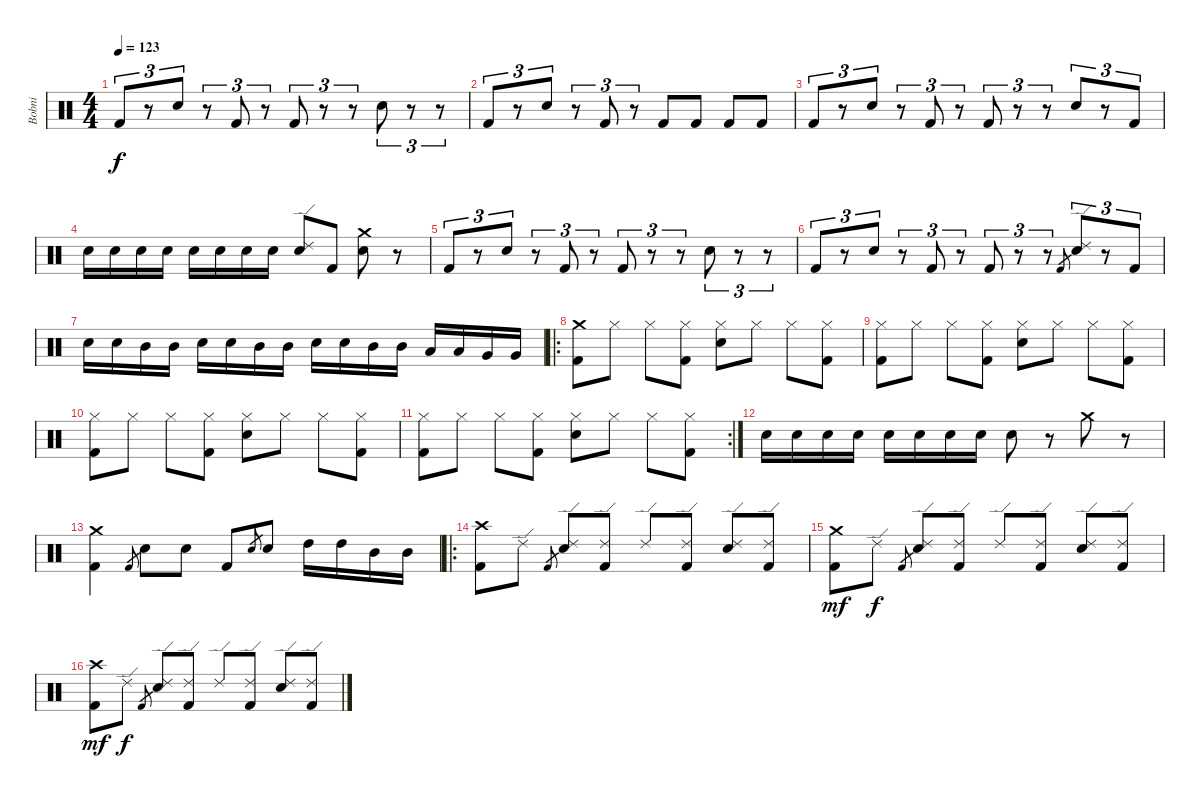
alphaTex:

\track ("Bobni" "Bobni") {instrument percussion}
\staff {score}
\articulation defaults
\ts (4 4)
\tempo 123
\clef neutral
\ks c "Kick (hit) 2".8{tu (3 2) dy f}
r.8{tu (3 2)} "Snare (hit) 2".8{tu (3 2)} r.8{tu (3 2)} "Kick (hit) 2".8{tu (3 2)} r.8{tu (3 2)} "Kick (hit) 2".8{tu (3 2)} r.8{tu (3 2)} r.8{tu (3 2)} "Snare (hit) 2".8{tu (3 2)} r.8{tu (3 2)} r.8{tu (3 2)} |
"Kick (hit) 2".8{tu (3 2)} r.8{tu (3 2)} "Snare (hit) 2".8{tu (3 2)} r.8{tu (3 2)} "Kick (hit) 2".8{tu (3 2)} r.8{tu (3 2)} "Kick (hit) 2".8 "Kick (hit) 2".8 "Kick (hit) 2".8 "Kick (hit) 2".8 |
"Kick (hit) 2".8{tu (3 2)} r.8{tu (3 2)} "Snare (hit) 2".8{tu (3 2)} r.8{tu (3 2)} "Kick (hit) 2".8{tu (3 2)} r.8{tu (3 2)} "Kick (hit) 2".8{tu (3 2)} r.8{tu (3 2)} r.8{tu (3 2)} "Snare (hit) 2".8{tu (3 2)} r.8{tu (3 2)} "Kick (hit) 2".8{tu (3 2)} |
"Snare (hit) 2".16 "Snare (hit) 2".16 "Snare (hit) 2".16 "Snare (hit) 2".16 "Snare (hit) 2".16 "Snare (hit) 2".16 "Snare (hit) 2".16 "Snare (hit) 2".16 ("Ride (edge) 2" "Snare (hit) 2").8 "Kick (hit) 2".8 ("Crash medium (hit)" "Snare (hit) 2").8 r.8 |
"Kick (hit) 2".8{tu (3 2)} r.8{tu (3 2)} "Snare (hit) 2".8{tu (3 2)} r.8{tu (3 2)} "Kick (hit) 2".8{tu (3 2)} r.8{tu (3 2)} "Kick (hit) 2".8{tu (3 2)} r.8{tu (3 2)} r.8{tu (3 2)} "Snare (hit) 2".8{tu (3 2)} r.8{tu (3 2)} r.8{tu (3 2)} |
"Kick (hit) 2".8{tu (3 2)} r.8{tu (3 2)} "Snare (hit) 2".8{tu (3 2)} r.8{tu (3 2)} "Kick (hit) 2".8{tu (3 2)} r.8{tu (3 2)} "Kick (hit) 2".8{tu (3 2)} r.8{tu (3 2)} r.8{tu (3 2)} "Kick (hit) 2".8{gr} ("Ride (edge) 2" "Snare (hit) 2").8{tu (3 2)} r.8{tu (3 2)} "Kick (hit) 2".8{tu (3 2)} |
"Snare (hit) 2".16 "Snare (hit) 2".16 "Mid Tom (hit)".16 "Mid Tom (hit)".16 "Snare (hit) 2".16 "Snare (hit) 2".16 "Mid Tom (hit)".16 "Mid Tom (hit)".16 "Snare (hit) 2".16 "Snare (hit) 2".16 "Mid Tom (hit)".16 "Mid Tom (hit)".16 "Low Tom (hit)".16 "Low Tom (hit)".16 "Very Low Tom (hit)".16 "Very Low Tom (hit)".16 |
\ro
("Crash medium (hit)" "Kick (hit) 2").8 "Hi-Hat (closed)".8 "Hi-Hat (closed)".8 ("Hi-Hat (closed)" "Kick (hit) 2").8 ("Hi-Hat (closed)" "Snare (hit) 2").8 "Hi-Hat (closed)".8 "Hi-Hat (closed)".8 ("Hi-Hat (closed)" "Kick (hit) 2").8 |
("Hi-Hat (closed)" "Kick (hit) 2").8 "Hi-Hat (closed)".8 "Hi-Hat (closed)".8 ("Hi-Hat (closed)" "Kick (hit) 2").8 ("Hi-Hat (closed)" "Snare (hit) 2").8 "Hi-Hat (closed)".8 "Hi-Hat (closed)".8 ("Hi-Hat (closed)" "Kick (hit) 2").8 |
("Hi-Hat (closed)" "Kick (hit) 2").8 "Hi-Hat (closed)".8 "Hi-Hat (closed)".8 ("Hi-Hat (closed)" "Kick (hit) 2").8 ("Hi-Hat (closed)" "Snare (hit) 2").8 "Hi-Hat (closed)".8 "Hi-Hat (closed)".8 ("Hi-Hat (closed)" "Kick (hit) 2").8 |
\rc 2
("Hi-Hat (closed)" "Kick (hit) 2").8 "Hi-Hat (closed)".8 "Hi-Hat (closed)".8 ("Hi-Hat (closed)" "Kick (hit) 2").8 ("Hi-Hat (closed)" "Snare (hit) 2").8 "Hi-Hat (closed)".8 "Hi-Hat (closed)".8 ("Hi-Hat (closed)" "Kick (hit) 2").8 |
"Snare (hit) 2".16 "Snare (hit) 2".16 "Snare (hit) 2".16 "Snare (hit) 2".16 "Snare (hit) 2".16 "Snare (hit) 2".16 "Snare (hit) 2".16 "Snare (hit) 2".16 "Snare (hit) 2".8 r.8 "Crash medium (hit)".8 r.8 |
("Crash medium (hit)" "Kick (hit) 2").4 "Kick (hit) 2".8{gr} "Snare (hit) 2".8 "Snare (hit) 2".8 "Kick (hit) 2".8 "Snare (hit) 2".8{gr} "Snare (hit) 2".8 "High Tom (hit)".16 "High Tom (hit)".16 "Mid Tom (hit)".16 "Mid Tom (hit)".16 |
\ro
("Crash high (hit)" "Kick (hit) 2").8 "Ride (edge) 2".8 "Kick (hit) 2".8{gr} ("Ride (edge) 2" "Snare (hit) 2").8 ("Ride (edge) 2" "Kick (hit) 2").8 "Ride (edge) 2".8 ("Ride (edge) 2" "Kick (hit) 2").8 ("Ride (edge) 2" "Snare (hit) 2").8 ("Ride (edge) 2" "Kick (hit) 2").8 |
("Crash medium (hit)" "Kick (hit) 2").8{dy mf} "Ride (edge) 2".8{dy f} "Kick (hit) 2".8{gr} ("Ride (edge) 2" "Snare (hit) 2").8 ("Ride (edge) 2" "Kick (hit) 2").8 "Ride (edge) 2".8 ("Ride (edge) 2" "Kick (hit) 2").8 ("Ride (edge) 2" "Snare (hit) 2").8 ("Ride (edge) 2" "Kick (hit) 2").8 |
("Crash high (hit)" "Kick (hit) 2").8{dy mf} "Ride (edge) 2".8{dy f} "Kick (hit) 2".8{gr} ("Ride (edge) 2" "Snare (hit) 2").8 ("Ride (edge) 2" "Kick (hit) 2").8 "Ride (edge) 2".8 ("Ride (edge) 2" "Kick (hit) 2").8 ("Ride (edge) 2" "Snare (hit) 2").8 ("Ride (edge) 2" "Kick (hit) 2").8
